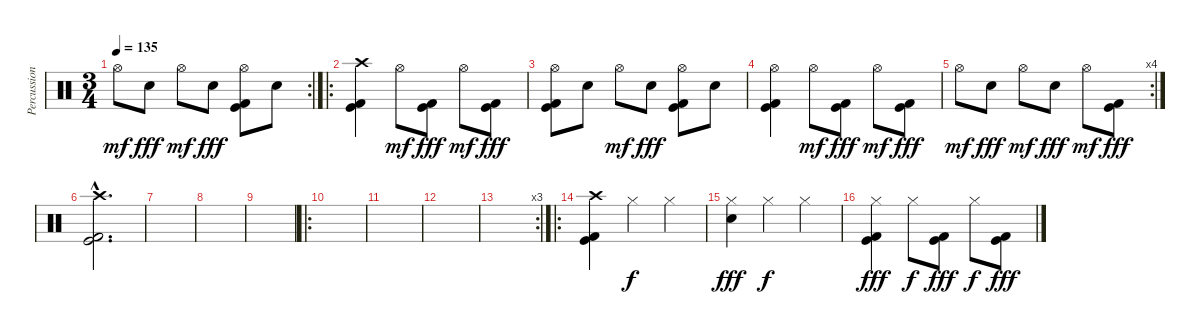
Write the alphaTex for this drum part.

\track ("Percussion" "Percussion") {instrument percussion}
\staff {score}
\articulation defaults
\rc 2
\ts (3 4)
\tempo 135
\clef neutral
\ks c "Hi-Hat (open)".8{dy mf} "Electric Snare (hit)".8{dy fff} "Hi-Hat (open)".8{dy mf} "Electric Snare (hit)".8{dy fff}
("Hi-Hat (open)" "Kick (hit)" "Kick (hit) 2").8 "Electric Snare (hit)".8 |
\ro
("Crash high (hit)" "Kick (hit)" "Kick (hit) 2").4 "Hi-Hat (open)".8{dy mf} ("Kick (hit)" "Kick (hit) 2").8{dy fff} "Hi-Hat (open)".8{dy mf} ("Kick (hit)" "Kick (hit) 2").8{dy fff} |
("Hi-Hat (open)" "Kick (hit)" "Kick (hit) 2").8 "Electric Snare (hit)".8 "Hi-Hat (open)".8{dy mf} "Electric Snare (hit)".8{dy fff} ("Hi-Hat (open)" "Kick (hit)" "Kick (hit) 2").8 "Electric Snare (hit)".8 |
("Hi-Hat (open)" "Kick (hit)" "Kick (hit) 2").4 "Hi-Hat (open)".8{dy mf} ("Kick (hit)" "Kick (hit) 2").8{dy fff} "Hi-Hat (open)".8{dy mf} ("Kick (hit)" "Kick (hit) 2").8{dy fff} |
\rc 4 "Hi-Hat (open)".8{dy mf} "Electric Snare (hit)".8{dy fff} "Hi-Hat (open)".8{dy mf} "Electric Snare (hit)".8{dy fff} "Hi-Hat (open)".8{dy mf}
("Kick (hit)" "Kick (hit) 2").8{dy fff} |
("Crash high (hit)"{hac} "Kick (hit)"{hac} "Kick (hit) 2"{hac}).2{d} |
|
|
|
\ro
|
|
|
\rc 3
|
\ro
("Crash high (hit)" "Kick (hit)" "Kick (hit) 2").4 "Hi-Hat (closed)".4{dy f} "Hi-Hat (closed)".4 |
("Hi-Hat (closed)" "Electric Snare (hit)").4{dy fff} "Hi-Hat (closed)".4{dy f} "Hi-Hat (closed)".4 |
("Hi-Hat (closed)" "Kick (hit)" "Kick (hit) 2").4{dy fff} "Hi-Hat (closed)".8{dy f} ("Kick (hit)" "Kick (hit) 2").8{dy fff} "Hi-Hat (closed)".8{dy f} ("Kick (hit)" "Kick (hit) 2").8{dy fff}
